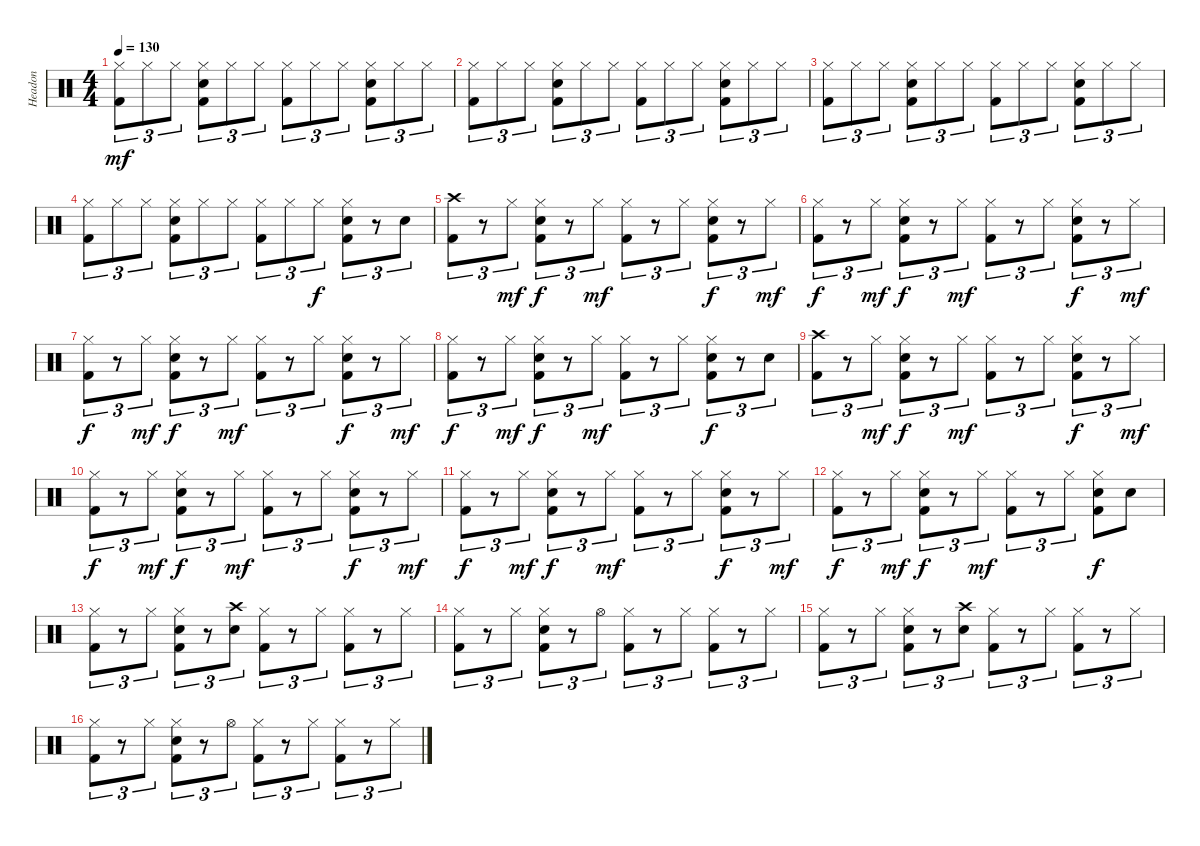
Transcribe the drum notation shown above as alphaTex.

\track ("Headon" "Headon") {instrument percussion}
\staff {score}
\articulation defaults
\ts (4 4)
\tempo 130
\clef neutral
\ks c
("Hi-Hat (closed)" "Kick (hit) 2").8{tu (3 2) dy mf} "Hi-Hat (closed)".8{tu (3 2)} "Hi-Hat (closed)".8{tu (3 2)} ("Hi-Hat (closed)" "Snare (hit) 2" "Kick (hit) 2").8{tu (3 2)} "Hi-Hat (closed)".8{tu (3 2)} "Hi-Hat (closed)".8{tu (3 2)} ("Hi-Hat (closed)" "Kick (hit) 2").8{tu (3 2)} "Hi-Hat (closed)".8{tu (3 2)} "Hi-Hat (closed)".8{tu (3 2)} ("Hi-Hat (closed)" "Snare (hit) 2" "Kick (hit) 2").8{tu (3 2)} "Hi-Hat (closed)".8{tu (3 2)} "Hi-Hat (closed)".8{tu (3 2)} |
("Hi-Hat (closed)" "Kick (hit) 2").8{tu (3 2)} "Hi-Hat (closed)".8{tu (3 2)} "Hi-Hat (closed)".8{tu (3 2)} ("Hi-Hat (closed)" "Snare (hit) 2" "Kick (hit) 2").8{tu (3 2)} "Hi-Hat (closed)".8{tu (3 2)} "Hi-Hat (closed)".8{tu (3 2)} ("Hi-Hat (closed)" "Kick (hit) 2").8{tu (3 2)} "Hi-Hat (closed)".8{tu (3 2)} "Hi-Hat (closed)".8{tu (3 2)} ("Hi-Hat (closed)" "Snare (hit) 2" "Kick (hit) 2").8{tu (3 2)} "Hi-Hat (closed)".8{tu (3 2)} "Hi-Hat (closed)".8{tu (3 2)} |
("Hi-Hat (closed)" "Kick (hit) 2").8{tu (3 2)} "Hi-Hat (closed)".8{tu (3 2)} "Hi-Hat (closed)".8{tu (3 2)} ("Hi-Hat (closed)" "Snare (hit) 2" "Kick (hit) 2").8{tu (3 2)} "Hi-Hat (closed)".8{tu (3 2)} "Hi-Hat (closed)".8{tu (3 2)} ("Hi-Hat (closed)" "Kick (hit) 2").8{tu (3 2)} "Hi-Hat (closed)".8{tu (3 2)} "Hi-Hat (closed)".8{tu (3 2)} ("Hi-Hat (closed)" "Snare (hit) 2" "Kick (hit) 2").8{tu (3 2)} "Hi-Hat (closed)".8{tu (3 2)} "Hi-Hat (closed)".8{tu (3 2)} |
("Hi-Hat (closed)" "Kick (hit) 2").8{tu (3 2)} "Hi-Hat (closed)".8{tu (3 2)} "Hi-Hat (closed)".8{tu (3 2)} ("Hi-Hat (closed)" "Snare (hit) 2" "Kick (hit) 2").8{tu (3 2)} "Hi-Hat (closed)".8{tu (3 2)} "Hi-Hat (closed)".8{tu (3 2)} ("Hi-Hat (closed)" "Kick (hit) 2").8{tu (3 2)} "Hi-Hat (closed)".8{tu (3 2)} "Hi-Hat (closed)".8{tu (3 2) dy f} ("Hi-Hat (closed)" "Snare (hit) 2" "Kick (hit) 2").8{tu (3 2)} r.8{tu (3 2)} "Snare (hit) 2".8{tu (3 2)} |
("Crash high (hit)" "Kick (hit) 2").8{tu (3 2)} r.8{tu (3 2)} "Hi-Hat (closed)".8{tu (3 2) dy mf} ("Hi-Hat (closed)" "Snare (hit) 2" "Kick (hit) 2").8{tu (3 2) dy f} r.8{tu (3 2)} "Hi-Hat (closed)".8{tu (3 2) dy mf} ("Hi-Hat (closed)" "Kick (hit) 2").8{tu (3 2)} r.8{tu (3 2)} "Hi-Hat (closed)".8{tu (3 2)} ("Hi-Hat (closed)" "Snare (hit) 2" "Kick (hit) 2").8{tu (3 2) dy f} r.8{tu (3 2)} "Hi-Hat (closed)".8{tu (3 2) dy mf} |
("Hi-Hat (closed)" "Kick (hit) 2").8{tu (3 2) dy f} r.8{tu (3 2)} "Hi-Hat (closed)".8{tu (3 2) dy mf} ("Hi-Hat (closed)" "Snare (hit) 2" "Kick (hit) 2").8{tu (3 2) dy f} r.8{tu (3 2)} "Hi-Hat (closed)".8{tu (3 2) dy mf} ("Hi-Hat (closed)" "Kick (hit) 2").8{tu (3 2)} r.8{tu (3 2)} "Hi-Hat (closed)".8{tu (3 2)} ("Hi-Hat (closed)" "Snare (hit) 2" "Kick (hit) 2").8{tu (3 2) dy f} r.8{tu (3 2)} "Hi-Hat (closed)".8{tu (3 2) dy mf} |
("Hi-Hat (closed)" "Kick (hit) 2").8{tu (3 2) dy f} r.8{tu (3 2)} "Hi-Hat (closed)".8{tu (3 2) dy mf} ("Hi-Hat (closed)" "Snare (hit) 2" "Kick (hit) 2").8{tu (3 2) dy f} r.8{tu (3 2)} "Hi-Hat (closed)".8{tu (3 2) dy mf} ("Hi-Hat (closed)" "Kick (hit) 2").8{tu (3 2)} r.8{tu (3 2)} "Hi-Hat (closed)".8{tu (3 2)} ("Hi-Hat (closed)" "Snare (hit) 2" "Kick (hit) 2").8{tu (3 2) dy f} r.8{tu (3 2)} "Hi-Hat (closed)".8{tu (3 2) dy mf} |
("Hi-Hat (closed)" "Kick (hit) 2").8{tu (3 2) dy f} r.8{tu (3 2)} "Hi-Hat (closed)".8{tu (3 2) dy mf} ("Hi-Hat (closed)" "Snare (hit) 2" "Kick (hit) 2").8{tu (3 2) dy f} r.8{tu (3 2)} "Hi-Hat (closed)".8{tu (3 2) dy mf} ("Hi-Hat (closed)" "Kick (hit) 2").8{tu (3 2)} r.8{tu (3 2)} "Hi-Hat (closed)".8{tu (3 2)} ("Hi-Hat (closed)" "Snare (hit) 2" "Kick (hit) 2").8{tu (3 2) dy f} r.8{tu (3 2)} "Snare (hit) 2".8{tu (3 2)} |
("Crash high (hit)" "Kick (hit) 2").8{tu (3 2)} r.8{tu (3 2)} "Hi-Hat (closed)".8{tu (3 2) dy mf} ("Hi-Hat (closed)" "Snare (hit) 2" "Kick (hit) 2").8{tu (3 2) dy f} r.8{tu (3 2)} "Hi-Hat (closed)".8{tu (3 2) dy mf} ("Hi-Hat (closed)" "Kick (hit) 2").8{tu (3 2)} r.8{tu (3 2)} "Hi-Hat (closed)".8{tu (3 2)} ("Hi-Hat (closed)" "Snare (hit) 2" "Kick (hit) 2").8{tu (3 2) dy f} r.8{tu (3 2)} "Hi-Hat (closed)".8{tu (3 2) dy mf} |
("Hi-Hat (closed)" "Kick (hit) 2").8{tu (3 2) dy f} r.8{tu (3 2)} "Hi-Hat (closed)".8{tu (3 2) dy mf} ("Hi-Hat (closed)" "Snare (hit) 2" "Kick (hit) 2").8{tu (3 2) dy f} r.8{tu (3 2)} "Hi-Hat (closed)".8{tu (3 2) dy mf} ("Hi-Hat (closed)" "Kick (hit) 2").8{tu (3 2)} r.8{tu (3 2)} "Hi-Hat (closed)".8{tu (3 2)} ("Hi-Hat (closed)" "Snare (hit) 2" "Kick (hit) 2").8{tu (3 2) dy f} r.8{tu (3 2)} "Hi-Hat (closed)".8{tu (3 2) dy mf} |
("Hi-Hat (closed)" "Kick (hit) 2").8{tu (3 2) dy f} r.8{tu (3 2)} "Hi-Hat (closed)".8{tu (3 2) dy mf} ("Hi-Hat (closed)" "Snare (hit) 2" "Kick (hit) 2").8{tu (3 2) dy f} r.8{tu (3 2)} "Hi-Hat (closed)".8{tu (3 2) dy mf} ("Hi-Hat (closed)" "Kick (hit) 2").8{tu (3 2)} r.8{tu (3 2)} "Hi-Hat (closed)".8{tu (3 2)} ("Hi-Hat (closed)" "Snare (hit) 2" "Kick (hit) 2").8{tu (3 2) dy f} r.8{tu (3 2)} "Hi-Hat (closed)".8{tu (3 2) dy mf} |
("Hi-Hat (closed)" "Kick (hit) 2").8{tu (3 2) dy f} r.8{tu (3 2)} "Hi-Hat (closed)".8{tu (3 2) dy mf} ("Hi-Hat (closed)" "Snare (hit) 2" "Kick (hit) 2").8{tu (3 2) dy f} r.8{tu (3 2)} "Hi-Hat (closed)".8{tu (3 2) dy mf} ("Hi-Hat (closed)" "Kick (hit) 2").8{tu (3 2)} r.8{tu (3 2)} "Hi-Hat (closed)".8{tu (3 2)} ("Hi-Hat (closed)" "Snare (hit) 2" "Kick (hit) 2").8{dy f} "Snare (hit) 2".8 |
("Hi-Hat (closed)" "Kick (hit) 2").8{tu (3 2)} r.8{tu (3 2)} "Hi-Hat (closed)".8{tu (3 2)} ("Hi-Hat (closed)" "Snare (hit) 2" "Kick (hit) 2").8{tu (3 2)} r.8{tu (3 2)} ("Crash high (hit)" "Snare (hit) 2").8{tu (3 2)} ("Hi-Hat (closed)" "Kick (hit) 2").8{tu (3 2)} r.8{tu (3 2)} "Hi-Hat (closed)".8{tu (3 2)} ("Hi-Hat (closed)" "Kick (hit) 2").8{tu (3 2)} r.8{tu (3 2)} "Hi-Hat (closed)".8{tu (3 2)} |
("Hi-Hat (closed)" "Kick (hit) 2").8{tu (3 2)} r.8{tu (3 2)} "Hi-Hat (closed)".8{tu (3 2)} ("Hi-Hat (closed)" "Snare (hit) 2" "Kick (hit) 2").8{tu (3 2)} r.8{tu (3 2)} "Hi-Hat (open)".8{tu (3 2)} ("Hi-Hat (closed)" "Kick (hit) 2").8{tu (3 2)} r.8{tu (3 2)} "Hi-Hat (closed)".8{tu (3 2)} ("Hi-Hat (closed)" "Kick (hit) 2").8{tu (3 2)} r.8{tu (3 2)} "Hi-Hat (closed)".8{tu (3 2)} |
("Hi-Hat (closed)" "Kick (hit) 2").8{tu (3 2)} r.8{tu (3 2)} "Hi-Hat (closed)".8{tu (3 2)} ("Hi-Hat (closed)" "Snare (hit) 2" "Kick (hit) 2").8{tu (3 2)} r.8{tu (3 2)} ("Crash high (hit)" "Snare (hit) 2").8{tu (3 2)} ("Hi-Hat (closed)" "Kick (hit) 2").8{tu (3 2)} r.8{tu (3 2)} "Hi-Hat (closed)".8{tu (3 2)} ("Hi-Hat (closed)" "Kick (hit) 2").8{tu (3 2)} r.8{tu (3 2)} "Hi-Hat (closed)".8{tu (3 2)} |
("Hi-Hat (closed)" "Kick (hit) 2").8{tu (3 2)} r.8{tu (3 2)} "Hi-Hat (closed)".8{tu (3 2)} ("Hi-Hat (closed)" "Snare (hit) 2" "Kick (hit) 2").8{tu (3 2)} r.8{tu (3 2)} "Hi-Hat (open)".8{tu (3 2)} ("Hi-Hat (closed)" "Kick (hit) 2").8{tu (3 2)} r.8{tu (3 2)} "Hi-Hat (closed)".8{tu (3 2)} ("Hi-Hat (closed)" "Kick (hit) 2").8{tu (3 2)} r.8{tu (3 2)} "Hi-Hat (closed)".8{tu (3 2)}
